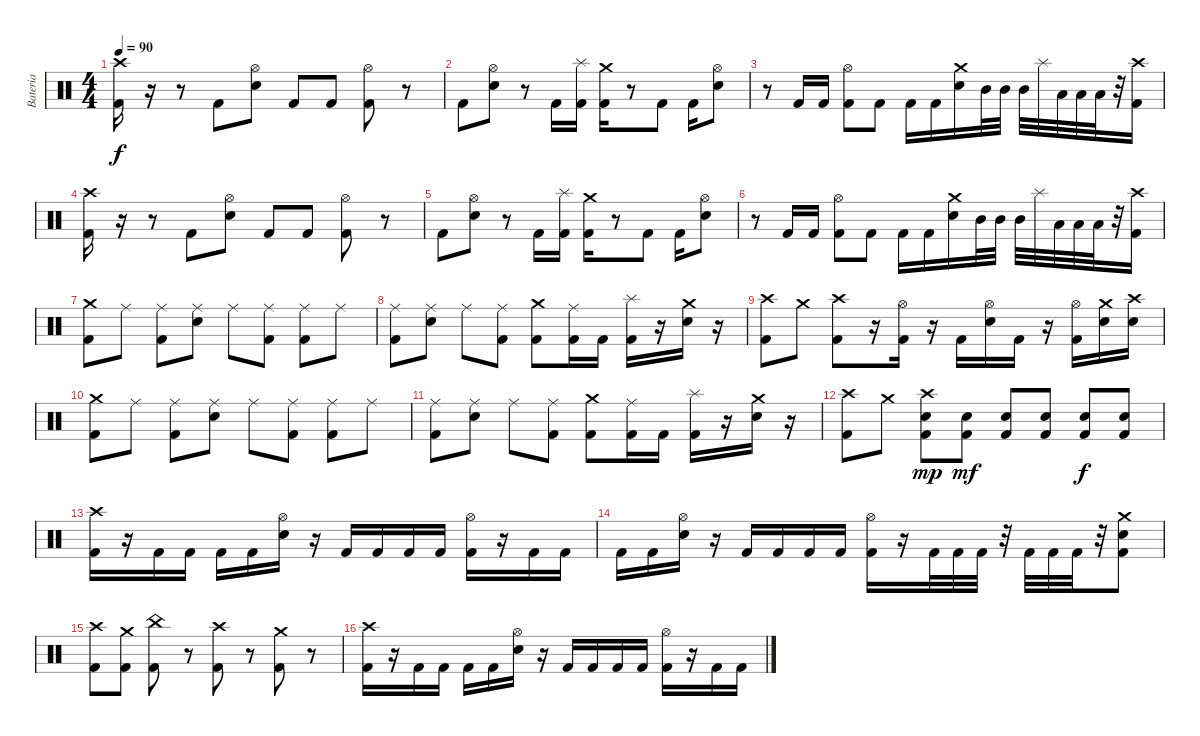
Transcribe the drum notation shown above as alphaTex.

\track ("Bateria" "Bateria") {instrument percussion}
\staff {score}
\articulation defaults
\ts (4 4)
\tempo 90
\clef neutral
\ks c
("Crash high (hit)" "Kick (hit) 2").16{dy f} r.16 r.8 "Kick (hit) 2".8 ("Hi-Hat (open)" "Snare (hit) 2").8 "Kick (hit) 2".8 "Kick (hit) 2".8 ("Hi-Hat (open)" "Kick (hit) 2").8 r.8 |
"Kick (hit) 2".8 ("Hi-Hat (open)" "Snare (hit) 2").8 r.8 "Kick (hit) 2".16 ("Splash (hit)" "Kick (hit) 2").16 ("Crash medium (hit)" "Kick (hit) 2").16 r.8 "Kick (hit) 2".8 "Kick (hit) 2".16 ("Hi-Hat (open)" "Snare (hit) 2").8 |
r.8 "Kick (hit) 2".16 "Kick (hit) 2".16 ("Hi-Hat (open)" "Kick (hit) 2").8 "Kick (hit) 2".8 "Kick (hit) 2".16 "Kick (hit) 2".16 ("Crash medium (hit)" "Snare (hit) 2").16 "Mid Tom (hit)".32 "Mid Tom (hit)".32 "Mid Tom (hit)".32 "Splash (hit)".32 "Low Tom (hit)".32 "Low Tom (hit)".32 "Low Tom (hit)".32 r.32 ("Crash high (hit)" "Kick (hit) 2").16 |
("Crash high (hit)" "Kick (hit) 2").16 r.16 r.8 "Kick (hit) 2".8 ("Hi-Hat (open)" "Snare (hit) 2").8 "Kick (hit) 2".8 "Kick (hit) 2".8 ("Hi-Hat (open)" "Kick (hit) 2").8 r.8 |
"Kick (hit) 2".8 ("Hi-Hat (open)" "Snare (hit) 2").8 r.8 "Kick (hit) 2".16 ("Splash (hit)" "Kick (hit) 2").16 ("Crash medium (hit)" "Kick (hit) 2").16 r.8 "Kick (hit) 2".8 "Kick (hit) 2".16 ("Hi-Hat (open)" "Snare (hit) 2").8 |
r.8 "Kick (hit) 2".16 "Kick (hit) 2".16 ("Hi-Hat (open)" "Kick (hit) 2").8 "Kick (hit) 2".8 "Kick (hit) 2".16 "Kick (hit) 2".16 ("Crash medium (hit)" "Snare (hit) 2").16 "Mid Tom (hit)".32 "Mid Tom (hit)".32 "Mid Tom (hit)".32 "Splash (hit)".32 "Low Tom (hit)".32 "Low Tom (hit)".32 "Low Tom (hit)".32 r.32 ("Crash high (hit)" "Kick (hit) 2").16 |
("Crash medium (hit)" "Kick (hit) 2").8 "Ride (middle)".8 ("Ride (middle)" "Kick (hit) 2").8 ("Ride (middle)" "Snare (hit) 2").8 "Ride (middle)".8 ("Ride (middle)" "Kick (hit) 2").8 ("Ride (middle)" "Kick (hit) 2").8 "Ride (middle)".8 |
("Ride (middle)" "Kick (hit) 2").8 ("Ride (middle)" "Snare (hit) 2").8 "Ride (middle)".8 ("Ride (middle)" "Kick (hit) 2").8 ("Crash medium (hit)" "Kick (hit) 2").8 ("Ride (middle)" "Kick (hit) 2").16 "Kick (hit) 2".16 ("Splash (hit)" "Kick (hit) 2").16 r.16 ("Crash medium (hit)" "Snare (hit) 2").16 r.16 |
("Crash high (hit)" "Kick (hit) 2").8 "Crash medium (hit)".8 ("Crash high (hit)" "Kick (hit) 2").8 r.16 ("Hi-Hat (open)" "Kick (hit) 2").16 r.16 "Kick (hit) 2".16 ("Hi-Hat (open)" "Snare (hit) 2").16 "Kick (hit) 2".16 r.16 ("Hi-Hat (open)" "Kick (hit) 2").16 ("Crash medium (hit)" "Snare (hit) 2").16 ("Crash high (hit)" "Snare (hit) 2").16 |
("Crash medium (hit)" "Kick (hit) 2").8 "Ride (middle)".8 ("Ride (middle)" "Kick (hit) 2").8 ("Ride (middle)" "Snare (hit) 2").8 "Ride (middle)".8 ("Ride (middle)" "Kick (hit) 2").8 ("Ride (middle)" "Kick (hit) 2").8 "Ride (middle)".8 |
("Ride (middle)" "Kick (hit) 2").8 ("Ride (middle)" "Snare (hit) 2").8 "Ride (middle)".8 ("Ride (middle)" "Kick (hit) 2").8 ("Crash medium (hit)" "Kick (hit) 2").8 ("Ride (middle)" "Kick (hit) 2").16 "Kick (hit) 2".16 ("Splash (hit)" "Kick (hit) 2").16 r.16 ("Crash medium (hit)" "Snare (hit) 2").16 r.16 |
("Crash high (hit)" "Kick (hit) 2").8 "Crash medium (hit)".8 ("Crash high (hit)" "Snare (hit) 2" "Kick (hit) 2").8{dy mp} ("Snare (hit) 2" "Kick (hit) 2").8{dy mf} ("Snare (hit) 2" "Kick (hit) 2").8 ("Snare (hit) 2" "Kick (hit) 2").8 ("Snare (hit) 2" "Kick (hit) 2").8{dy f} ("Snare (hit) 2" "Kick (hit) 2").8 |
("Crash high (hit)" "Kick (hit) 2").16 r.16 "Kick (hit) 2".16 "Kick (hit) 2".16 "Kick (hit) 2".16 "Kick (hit) 2".16 ("Hi-Hat (open)" "Snare (hit) 2").16 r.16 "Kick (hit) 2".16 "Kick (hit) 2".16 "Kick (hit) 2".16 "Kick (hit) 2".16 ("Hi-Hat (open)" "Kick (hit) 2").16 r.16 "Kick (hit) 2".16 "Kick (hit) 2".16 |
"Kick (hit) 2".16 "Kick (hit) 2".16 ("Hi-Hat (open)" "Snare (hit) 2").16 r.16 "Kick (hit) 2".16 "Kick (hit) 2".16 "Kick (hit) 2".16 "Kick (hit) 2".16 ("Hi-Hat (open)" "Kick (hit) 2").16 r.16 "Kick (hit) 2".32 "Kick (hit) 2".32 "Kick (hit) 2".32 r.32 "Kick (hit) 2".32 "Kick (hit) 2".32 "Kick (hit) 2".32 r.32 ("Crash medium (hit)" "Snare (hit) 2" "Kick (hit) 2").8 |
("Crash high (hit)" "Kick (hit) 2").8 ("Crash medium (hit)" "Kick (hit) 2").8 ("China (hit)" "Kick (hit) 2").8 r.8 ("Crash high (hit)" "Kick (hit) 2").8 r.8 ("Crash medium (hit)" "Kick (hit) 2").8 r.8 |
("Crash high (hit)" "Kick (hit) 2").16 r.16 "Kick (hit) 2".16 "Kick (hit) 2".16 "Kick (hit) 2".16 "Kick (hit) 2".16 ("Hi-Hat (open)" "Snare (hit) 2").16 r.16 "Kick (hit) 2".16 "Kick (hit) 2".16 "Kick (hit) 2".16 "Kick (hit) 2".16 ("Hi-Hat (open)" "Kick (hit) 2").16 r.16 "Kick (hit) 2".16 "Kick (hit) 2".16
